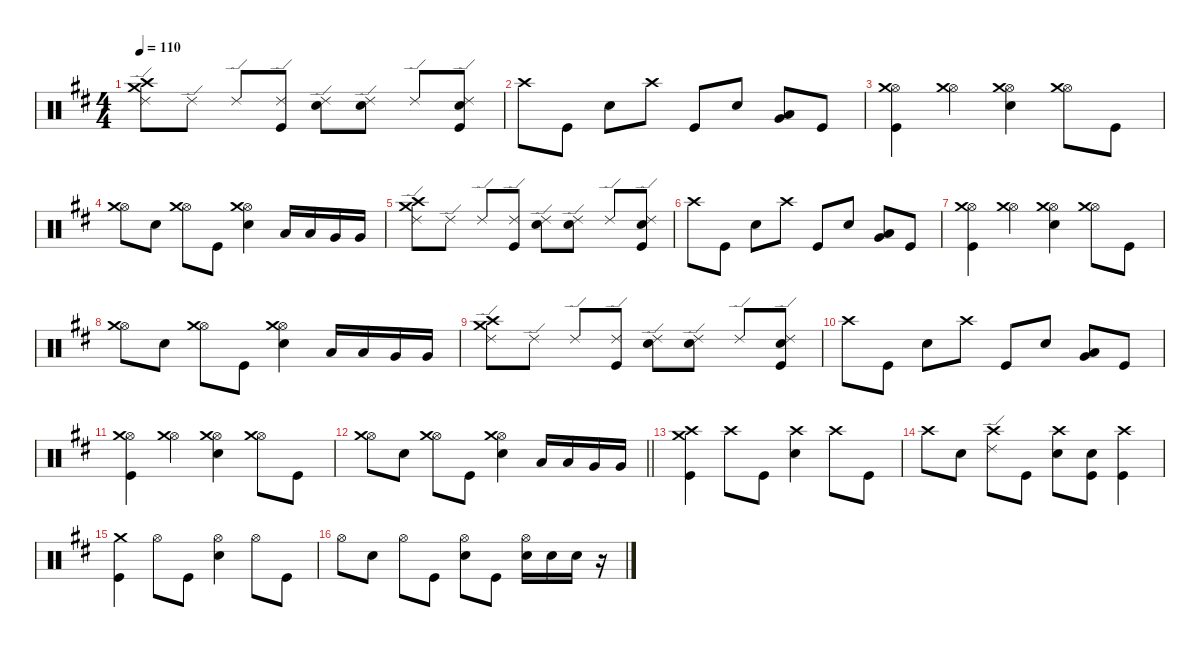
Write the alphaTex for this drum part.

\defaultSystemsLayout 4
\hideDynamics
\bracketExtendMode nobrackets
\singleTrackTrackNamePolicy hidden
\multiTrackTrackNamePolicy hidden
\firstSystemTrackNameMode fullname
\firstSystemTrackNameOrientation horizontal
\otherSystemsTrackNameOrientation horizontal
\track ("Aaron Harris" "drm.") {defaultSystemsLayout 4 instrument percussion}
\staff {score}
\articulation defaults
\ts (4 4)
\tempo 110
\clef neutral
\ks bminor
("Ride (edge) 2"{acc forcenatural} "Crash medium (hit)"{acc forcenatural} "Crash high (hit)"{acc forcenatural}).8{dy f beam Down} "Ride (edge) 2"{acc forcenatural}.8{beam Down} "Ride (edge) 2"{acc forcenatural}.8{beam Up} ("Ride (edge) 2"{acc forcenatural} "Kick (hit)"{acc forcenatural}).8{beam Up} ("Ride (edge) 2"{acc forcenatural} "Snare (hit) 2"{acc forcenatural}).8{beam Down} ("Ride (edge) 2"{acc forcenatural} "Snare (hit) 2"{acc forcenatural}).8{beam Down} "Ride (edge) 2"{acc forcenatural}.8{beam Up} ("Ride (edge) 2"{acc forcenatural} "Snare (hit) 2"{acc forcenatural} "Kick (hit)"{acc forcenatural}).8{beam Up} |
"Crash high (hit)"{acc forcenatural}.8{beam Down} "Kick (hit)"{acc forcenatural}.8{beam Down} "Snare (hit) 2"{acc forcenatural}.8{beam Down} "Crash high (hit)"{acc forcenatural}.8{beam Down} "Kick (hit)"{acc forcenatural}.8{beam Up} "Snare (hit) 2"{acc forcenatural}.8{beam Up} ("Very Low Tom (hit)"{acc forcenatural} "Low Tom (hit)"{acc forcenatural}).8{beam Up} "Kick (hit)"{acc forcenatural}.8{beam Up} |
("Hi-Hat (open)"{acc forcenatural} "Crash medium (hit)"{acc forcenatural} "Kick (hit)"{acc forcenatural}).4{beam Down} ("Hi-Hat (open)"{acc forcenatural} "Crash medium (hit)"{acc forcenatural}).4{beam Down} ("Hi-Hat (open)"{acc forcenatural} "Crash medium (hit)"{acc forcenatural} "Snare (hit) 2"{acc forcenatural}).4{beam Down} ("Hi-Hat (open)"{acc forcenatural} "Crash medium (hit)"{acc forcenatural}).8{beam Down} "Kick (hit)"{acc forcenatural}.8{beam Down} |
("Hi-Hat (open)"{acc forcenatural} "Crash medium (hit)"{acc forcenatural}).8{beam Down} "Snare (hit) 2"{acc forcenatural}.8{beam Down} ("Hi-Hat (open)"{acc forcenatural} "Crash medium (hit)"{acc forcenatural}).8{beam Down} "Kick (hit)"{acc forcenatural}.8{beam Down} ("Hi-Hat (open)"{acc forcenatural} "Crash medium (hit)"{acc forcenatural} "Snare (hit) 2"{acc forcenatural}).4{beam Down} "Low Tom (hit)"{acc forcenatural}.16{beam Up} "Low Tom (hit)"{acc forcenatural}.16{beam Up} "Very Low Tom (hit)"{acc forcenatural}.16{beam Up} "Very Low Tom (hit)"{acc forcenatural}.16{beam Up} |
("Ride (edge) 2"{acc forcenatural} "Crash medium (hit)"{acc forcenatural} "Crash high (hit)"{acc forcenatural}).8{beam Down} "Ride (edge) 2"{acc forcenatural}.8{beam Down} "Ride (edge) 2"{acc forcenatural}.8{beam Up} ("Ride (edge) 2"{acc forcenatural} "Kick (hit)"{acc forcenatural}).8{beam Up} ("Ride (edge) 2"{acc forcenatural} "Snare (hit) 2"{acc forcenatural}).8{beam Down} ("Ride (edge) 2"{acc forcenatural} "Snare (hit) 2"{acc forcenatural}).8{beam Down} "Ride (edge) 2"{acc forcenatural}.8{beam Up} ("Ride (edge) 2"{acc forcenatural} "Snare (hit) 2"{acc forcenatural} "Kick (hit)"{acc forcenatural}).8{beam Up} |
"Crash high (hit)"{acc forcenatural}.8{beam Down} "Kick (hit)"{acc forcenatural}.8{beam Down} "Snare (hit) 2"{acc forcenatural}.8{beam Down} "Crash high (hit)"{acc forcenatural}.8{beam Down} "Kick (hit)"{acc forcenatural}.8{beam Up} "Snare (hit) 2"{acc forcenatural}.8{beam Up} ("Very Low Tom (hit)"{acc forcenatural} "Low Tom (hit)"{acc forcenatural}).8{beam Up} "Kick (hit)"{acc forcenatural}.8{beam Up} |
("Hi-Hat (open)"{acc forcenatural} "Crash medium (hit)"{acc forcenatural} "Kick (hit)"{acc forcenatural}).4{beam Down} ("Hi-Hat (open)"{acc forcenatural} "Crash medium (hit)"{acc forcenatural}).4{beam Down} ("Hi-Hat (open)"{acc forcenatural} "Crash medium (hit)"{acc forcenatural} "Snare (hit) 2"{acc forcenatural}).4{beam Down} ("Hi-Hat (open)"{acc forcenatural} "Crash medium (hit)"{acc forcenatural}).8{beam Down} "Kick (hit)"{acc forcenatural}.8{beam Down} |
("Hi-Hat (open)"{acc forcenatural} "Crash medium (hit)"{acc forcenatural}).8{beam Down} "Snare (hit) 2"{acc forcenatural}.8{beam Down} ("Hi-Hat (open)"{acc forcenatural} "Crash medium (hit)"{acc forcenatural}).8{beam Down} "Kick (hit)"{acc forcenatural}.8{beam Down} ("Hi-Hat (open)"{acc forcenatural} "Crash medium (hit)"{acc forcenatural} "Snare (hit) 2"{acc forcenatural}).4{beam Down} "Low Tom (hit)"{acc forcenatural}.16{beam Up} "Low Tom (hit)"{acc forcenatural}.16{beam Up} "Very Low Tom (hit)"{acc forcenatural}.16{beam Up} "Very Low Tom (hit)"{acc forcenatural}.16{beam Up} |
("Ride (edge) 2"{acc forcenatural} "Crash medium (hit)"{acc forcenatural} "Crash high (hit)"{acc forcenatural}).8{beam Down} "Ride (edge) 2"{acc forcenatural}.8{beam Down} "Ride (edge) 2"{acc forcenatural}.8{beam Up} ("Ride (edge) 2"{acc forcenatural} "Kick (hit)"{acc forcenatural}).8{beam Up} ("Ride (edge) 2"{acc forcenatural} "Snare (hit) 2"{acc forcenatural}).8{beam Down} ("Ride (edge) 2"{acc forcenatural} "Snare (hit) 2"{acc forcenatural}).8{beam Down} "Ride (edge) 2"{acc forcenatural}.8{beam Up} ("Ride (edge) 2"{acc forcenatural} "Snare (hit) 2"{acc forcenatural} "Kick (hit)"{acc forcenatural}).8{beam Up} |
"Crash high (hit)"{acc forcenatural}.8{beam Down} "Kick (hit)"{acc forcenatural}.8{beam Down} "Snare (hit) 2"{acc forcenatural}.8{beam Down} "Crash high (hit)"{acc forcenatural}.8{beam Down} "Kick (hit)"{acc forcenatural}.8{beam Up} "Snare (hit) 2"{acc forcenatural}.8{beam Up} ("Very Low Tom (hit)"{acc forcenatural} "Low Tom (hit)"{acc forcenatural}).8{beam Up} "Kick (hit)"{acc forcenatural}.8{beam Up} |
("Hi-Hat (open)"{acc forcenatural} "Crash medium (hit)"{acc forcenatural} "Kick (hit)"{acc forcenatural}).4{beam Down} ("Hi-Hat (open)"{acc forcenatural} "Crash medium (hit)"{acc forcenatural}).4{beam Down} ("Hi-Hat (open)"{acc forcenatural} "Crash medium (hit)"{acc forcenatural} "Snare (hit) 2"{acc forcenatural}).4{beam Down} ("Hi-Hat (open)"{acc forcenatural} "Crash medium (hit)"{acc forcenatural}).8{beam Down} "Kick (hit)"{acc forcenatural}.8{beam Down} |
\barLineRight lightlight
("Hi-Hat (open)"{acc forcenatural} "Crash medium (hit)"{acc forcenatural}).8{beam Down} "Snare (hit) 2"{acc forcenatural}.8{beam Down} ("Hi-Hat (open)"{acc forcenatural} "Crash medium (hit)"{acc forcenatural}).8{beam Down} "Kick (hit)"{acc forcenatural}.8{beam Down} ("Hi-Hat (open)"{acc forcenatural} "Crash medium (hit)"{acc forcenatural} "Snare (hit) 2"{acc forcenatural}).4{beam Down} "Low Tom (hit)"{acc forcenatural}.16{beam Up} "Low Tom (hit)"{acc forcenatural}.16{beam Up} "Very Low Tom (hit)"{acc forcenatural}.16{beam Up} "Very Low Tom (hit)"{acc forcenatural}.16{beam Up} |
("Crash high (hit)"{acc forcenatural} "Crash medium (hit)"{acc forcenatural} "Kick (hit)"{acc forcenatural}).4{beam Down} "Crash high (hit)"{acc forcenatural}.8{beam Down} "Kick (hit)"{acc forcenatural}.8{beam Down} ("Crash high (hit)"{acc forcenatural} "Snare (hit) 2"{acc forcenatural}).4{beam Down} "Crash high (hit)"{acc forcenatural}.8{beam Down} "Kick (hit)"{acc forcenatural}.8{beam Down} |
"Crash high (hit)"{acc forcenatural}.8{beam Down} "Snare (hit) 2"{acc forcenatural}.8{beam Down} ("Crash high (hit)"{acc forcenatural} "Ride (edge) 2"{acc forcenatural}).8{beam Down} "Kick (hit)"{acc forcenatural}.8{beam Down} ("Crash high (hit)"{acc forcenatural} "Snare (hit) 2"{acc forcenatural}).8{beam Down} ("Snare (hit) 2"{acc forcenatural} "Kick (hit)"{acc forcenatural}).8{beam Down} ("Crash high (hit)"{acc forcenatural} "Kick (hit)"{acc forcenatural}).4{beam Down} |
("Crash medium (hit)"{acc forcenatural} "Kick (hit)"{acc forcenatural}).4{beam Down} "Hi-Hat (open)"{acc forcenatural}.8{beam Down} "Kick (hit)"{acc forcenatural}.8{beam Down} ("Hi-Hat (open)"{acc forcenatural} "Snare (hit) 2"{acc forcenatural}).4{beam Down} "Hi-Hat (open)"{acc forcenatural}.8{beam Down} "Kick (hit)"{acc forcenatural}.8{beam Down} |
"Hi-Hat (open)"{acc forcenatural}.8{beam Down} "Snare (hit) 2"{acc forcenatural}.8{beam Down} "Hi-Hat (open)"{acc forcenatural}.8{beam Down} "Kick (hit)"{acc forcenatural}.8{beam Down} ("Hi-Hat (open)"{acc forcenatural} "Snare (hit) 2"{acc forcenatural}).8{beam Down} "Kick (hit)"{acc forcenatural}.8{beam Down} ("Hi-Hat (open)"{acc forcenatural} "Snare (hit) 2"{acc forcenatural}).16{beam Down} "Snare (hit) 2"{acc forcenatural}.16{beam Down} "Snare (hit) 2"{acc forcenatural}.16{beam Down} r.16{beam Down}
